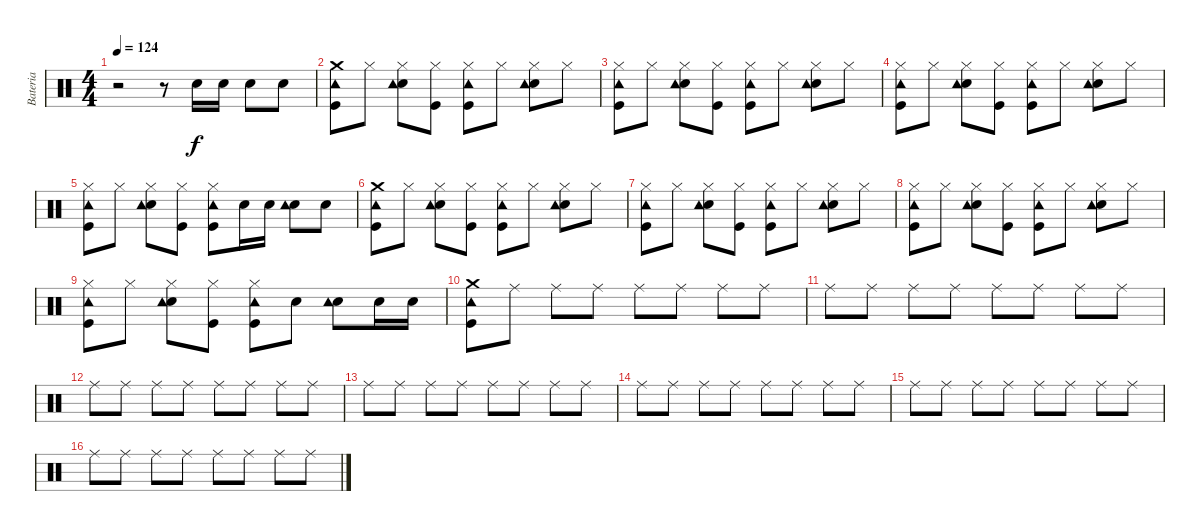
\track ("Bateria" "Bateria") {instrument percussion}
\staff {score}
\articulation defaults
\ts (4 4)
\tempo 124
\clef neutral
\ks c
r.2{dy f} r.8 "Snare (hit) 2".16 "Snare (hit) 2".16 "Snare (hit) 2".8 "Snare (hit) 2".8 |
("Crash medium (hit)" "Kick (hit)" "Tambourine (hit)").8 "Hi-Hat (closed)".8 ("Hi-Hat (closed)" "Snare (hit) 2" "Tambourine (hit)").8 ("Hi-Hat (closed)" "Kick (hit)").8 ("Hi-Hat (closed)" "Kick (hit)" "Tambourine (hit)").8 "Hi-Hat (closed)".8 ("Hi-Hat (closed)" "Snare (hit) 2" "Tambourine (hit)").8 "Hi-Hat (closed)".8 |
("Hi-Hat (closed)" "Kick (hit)" "Tambourine (hit)").8 "Hi-Hat (closed)".8 ("Hi-Hat (closed)" "Snare (hit) 2" "Tambourine (hit)").8 ("Hi-Hat (closed)" "Kick (hit)").8 ("Hi-Hat (closed)" "Kick (hit)" "Tambourine (hit)").8 "Hi-Hat (closed)".8 ("Hi-Hat (closed)" "Snare (hit) 2" "Tambourine (hit)").8 "Hi-Hat (closed)".8 |
("Hi-Hat (closed)" "Kick (hit)" "Tambourine (hit)").8 "Hi-Hat (closed)".8 ("Hi-Hat (closed)" "Snare (hit) 2" "Tambourine (hit)").8 ("Hi-Hat (closed)" "Kick (hit)").8 ("Hi-Hat (closed)" "Kick (hit)" "Tambourine (hit)").8 "Hi-Hat (closed)".8 ("Hi-Hat (closed)" "Snare (hit) 2" "Tambourine (hit)").8 "Hi-Hat (closed)".8 |
("Hi-Hat (closed)" "Kick (hit)" "Tambourine (hit)").8 "Hi-Hat (closed)".8 ("Hi-Hat (closed)" "Snare (hit) 2" "Tambourine (hit)").8 ("Hi-Hat (closed)" "Kick (hit)").8 ("Hi-Hat (closed)" "Kick (hit)" "Tambourine (hit)").8 "Snare (hit) 2".16 "Snare (hit) 2".16 ("Snare (hit) 2" "Tambourine (hit)").8 "Snare (hit) 2".8 |
("Crash medium (hit)" "Kick (hit)" "Tambourine (hit)").8 "Hi-Hat (closed)".8 ("Hi-Hat (closed)" "Snare (hit) 2" "Tambourine (hit)").8 ("Hi-Hat (closed)" "Kick (hit)").8 ("Hi-Hat (closed)" "Kick (hit)" "Tambourine (hit)").8 "Hi-Hat (closed)".8 ("Hi-Hat (closed)" "Snare (hit) 2" "Tambourine (hit)").8 "Hi-Hat (closed)".8 |
("Hi-Hat (closed)" "Kick (hit)" "Tambourine (hit)").8 "Hi-Hat (closed)".8 ("Hi-Hat (closed)" "Snare (hit) 2" "Tambourine (hit)").8 ("Hi-Hat (closed)" "Kick (hit)").8 ("Hi-Hat (closed)" "Kick (hit)" "Tambourine (hit)").8 "Hi-Hat (closed)".8 ("Hi-Hat (closed)" "Snare (hit) 2" "Tambourine (hit)").8 "Hi-Hat (closed)".8 |
("Hi-Hat (closed)" "Kick (hit)" "Tambourine (hit)").8 "Hi-Hat (closed)".8 ("Hi-Hat (closed)" "Snare (hit) 2" "Tambourine (hit)").8 ("Hi-Hat (closed)" "Kick (hit)").8 ("Hi-Hat (closed)" "Kick (hit)" "Tambourine (hit)").8 "Hi-Hat (closed)".8 ("Hi-Hat (closed)" "Snare (hit) 2" "Tambourine (hit)").8 "Hi-Hat (closed)".8 |
("Hi-Hat (closed)" "Kick (hit)" "Tambourine (hit)").8 "Hi-Hat (closed)".8 ("Hi-Hat (closed)" "Snare (hit) 2" "Tambourine (hit)").8 ("Hi-Hat (closed)" "Kick (hit)").8 ("Hi-Hat (closed)" "Kick (hit)" "Tambourine (hit)").8 "Snare (hit) 2".8 ("Snare (hit) 2" "Tambourine (hit)").8 "Snare (hit) 2".16 "Snare (hit) 2".16 |
("Kick (hit)" "Crash medium (hit)" "Tambourine (hit)").8 "Ride (middle)".8 "Ride (middle)".8 "Ride (middle)".8 "Ride (middle)".8 "Ride (middle)".8 "Ride (middle)".8 "Ride (middle)".8 |
"Ride (middle)".8 "Ride (middle)".8 "Ride (middle)".8 "Ride (middle)".8 "Ride (middle)".8 "Ride (middle)".8 "Ride (middle)".8 "Ride (middle)".8 |
"Ride (middle)".8 "Ride (middle)".8 "Ride (middle)".8 "Ride (middle)".8 "Ride (middle)".8 "Ride (middle)".8 "Ride (middle)".8 "Ride (middle)".8 |
"Ride (middle)".8 "Ride (middle)".8 "Ride (middle)".8 "Ride (middle)".8 "Ride (middle)".8 "Ride (middle)".8 "Ride (middle)".8 "Ride (middle)".8 |
"Ride (middle)".8 "Ride (middle)".8 "Ride (middle)".8 "Ride (middle)".8 "Ride (middle)".8 "Ride (middle)".8 "Ride (middle)".8 "Ride (middle)".8 |
"Ride (middle)".8 "Ride (middle)".8 "Ride (middle)".8 "Ride (middle)".8 "Ride (middle)".8 "Ride (middle)".8 "Ride (middle)".8 "Ride (middle)".8 |
"Ride (middle)".8 "Ride (middle)".8 "Ride (middle)".8 "Ride (middle)".8 "Ride (middle)".8 "Ride (middle)".8 "Ride (middle)".8 "Ride (middle)".8
